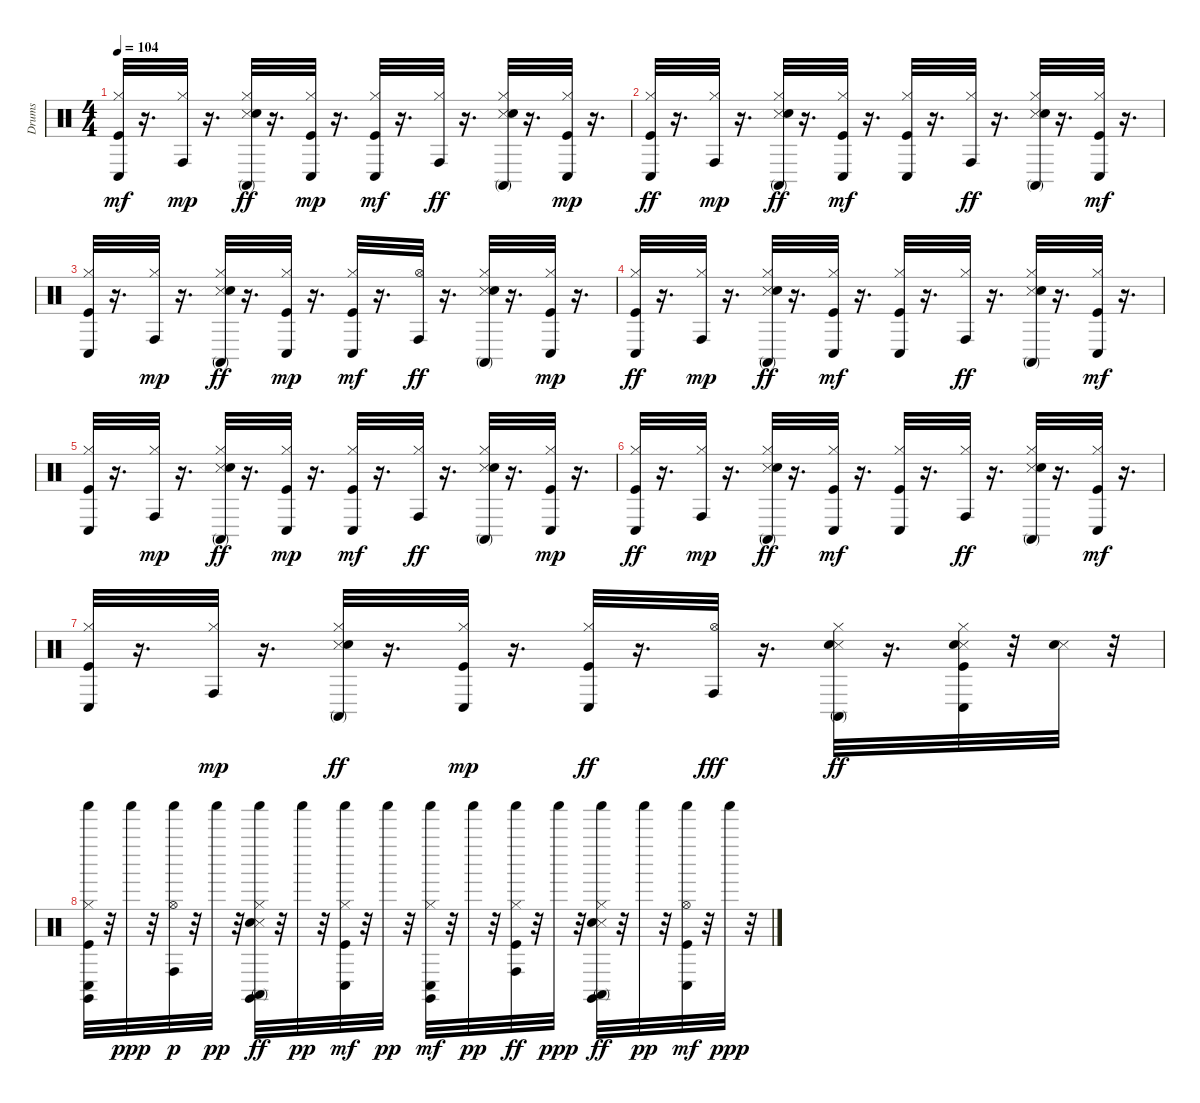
\track ("Drums" "Drums") {instrument percussion}
\staff {score}
\articulation defaults
\ts (4 4)
\tempo 104
\clef neutral
\ks c
("Kick (hit)" "Hi-Hat (closed)" "Conga low (hit)").32{dy mf} r.16{d} ("Hi-Hat (closed)" "Conga high (hit)").32{dy mp} r.16{d} ("Snare (side stick) 3" "Hi-Hat (closed)" "Conga high (mute)" "Snare (hit) 2").32{dy ff} r.16{d} ("Kick (hit)" "Hi-Hat (closed)" "Conga low (hit)").32{dy mp} r.16{d} ("Kick (hit)" "Hi-Hat (closed)" "Conga low (hit)").32{dy mf} r.16{d} ("Hi-Hat (closed)" "Conga high (hit)").32{dy ff} r.16{d} ("Snare (side stick) 3" "Hi-Hat (closed)" "Conga high (mute)" "Snare (hit) 2").32 r.16{d} ("Kick (hit)" "Hi-Hat (closed)" "Conga low (hit)").32{dy mp} r.16{d} |
("Kick (hit)" "Hi-Hat (closed)" "Conga low (hit)").32{dy ff} r.16{d} ("Hi-Hat (closed)" "Conga high (hit)").32{dy mp} r.16{d} ("Snare (side stick) 3" "Hi-Hat (closed)" "Conga high (mute)" "Snare (hit) 2").32{dy ff} r.16{d} ("Kick (hit)" "Hi-Hat (closed)" "Conga low (hit)").32{dy mf} r.16{d} ("Kick (hit)" "Hi-Hat (closed)" "Conga low (hit)").32 r.16{d} ("Hi-Hat (closed)" "Conga high (hit)").32{dy ff} r.16{d} ("Snare (side stick) 3" "Hi-Hat (closed)" "Conga high (mute)" "Snare (hit) 2").32 r.16{d} ("Kick (hit)" "Hi-Hat (closed)" "Conga low (hit)").32{dy mf} r.16{d} |
("Kick (hit)" "Hi-Hat (closed)" "Conga low (hit)").32 r.16{d} ("Hi-Hat (closed)" "Conga high (hit)").32{dy mp} r.16{d} ("Snare (side stick) 3" "Hi-Hat (closed)" "Conga high (mute)" "Snare (hit) 2").32{dy ff} r.16{d} ("Kick (hit)" "Hi-Hat (closed)" "Conga low (hit)").32{dy mp} r.16{d} ("Kick (hit)" "Hi-Hat (closed)" "Conga low (hit)").32{dy mf} r.16{d} ("Hi-Hat (open)" "Conga high (hit)").32{dy ff} r.16{d} ("Snare (side stick) 3" "Hi-Hat (closed)" "Conga high (mute)" "Snare (hit) 2").32 r.16{d} ("Kick (hit)" "Hi-Hat (closed)" "Conga low (hit)").32{dy mp} r.16{d} |
("Kick (hit)" "Hi-Hat (closed)" "Conga low (hit)").32{dy ff} r.16{d} ("Hi-Hat (closed)" "Conga high (hit)").32{dy mp} r.16{d} ("Snare (side stick) 3" "Hi-Hat (closed)" "Conga high (mute)" "Snare (hit) 2").32{dy ff} r.16{d} ("Kick (hit)" "Hi-Hat (closed)" "Conga low (hit)").32{dy mf} r.16{d} ("Kick (hit)" "Hi-Hat (closed)" "Conga low (hit)").32 r.16{d} ("Hi-Hat (closed)" "Conga high (hit)").32{dy ff} r.16{d} ("Snare (side stick) 3" "Hi-Hat (closed)" "Conga high (mute)" "Snare (hit) 2").32 r.16{d} ("Kick (hit)" "Hi-Hat (closed)" "Conga low (hit)").32{dy mf} r.16{d} |
("Kick (hit)" "Hi-Hat (closed)" "Conga low (hit)").32 r.16{d} ("Hi-Hat (closed)" "Conga high (hit)").32{dy mp} r.16{d} ("Snare (side stick) 3" "Hi-Hat (closed)" "Conga high (mute)" "Snare (hit) 2").32{dy ff} r.16{d} ("Kick (hit)" "Hi-Hat (closed)" "Conga low (hit)").32{dy mp} r.16{d} ("Kick (hit)" "Hi-Hat (closed)" "Conga low (hit)").32{dy mf} r.16{d} ("Hi-Hat (closed)" "Conga high (hit)").32{dy ff} r.16{d} ("Snare (side stick) 3" "Hi-Hat (closed)" "Conga high (mute)" "Snare (hit) 2").32 r.16{d} ("Kick (hit)" "Hi-Hat (closed)" "Conga low (hit)").32{dy mp} r.16{d} |
("Kick (hit)" "Hi-Hat (closed)" "Conga low (hit)").32{dy ff} r.16{d} ("Hi-Hat (closed)" "Conga high (hit)").32{dy mp} r.16{d} ("Snare (side stick) 3" "Hi-Hat (closed)" "Conga high (mute)" "Snare (hit) 2").32{dy ff} r.16{d} ("Kick (hit)" "Hi-Hat (closed)" "Conga low (hit)").32{dy mf} r.16{d} ("Kick (hit)" "Hi-Hat (closed)" "Conga low (hit)").32 r.16{d} ("Hi-Hat (closed)" "Conga high (hit)").32{dy ff} r.16{d} ("Snare (side stick) 3" "Hi-Hat (closed)" "Conga high (mute)" "Snare (hit) 2").32 r.16{d} ("Kick (hit)" "Hi-Hat (closed)" "Conga low (hit)").32{dy mf} r.16{d} |
("Kick (hit)" "Hi-Hat (closed)" "Conga low (hit)").32 r.16{d} ("Hi-Hat (closed)" "Conga high (hit)").32{dy mp} r.16{d} ("Snare (side stick) 3" "Hi-Hat (closed)" "Conga high (mute)" "Snare (hit) 2").32{dy ff} r.16{d} ("Kick (hit)" "Hi-Hat (closed)" "Conga low (hit)").32{dy mp} r.16{d} ("Kick (hit)" "Hi-Hat (closed)" "Conga low (hit)").32{dy ff} r.16{d} ("Hi-Hat (open)" "Conga high (hit)").32{dy fff} r.16{d} ("Snare (side stick) 3" "Hi-Hat (closed)" "Conga high (mute)" "Snare (hit) 2").32{dy ff} r.16{d} ("Snare (side stick) 3" "Kick (hit)" "Hi-Hat (closed)" "Conga low (hit)" "Snare (hit) 2").32 r.32 ("Snare (side stick) 3" "Snare (hit) 2").32 r.32 |
("Claves (hit)" "Shaker (hit)" "Kick (hit)" "Hi-Hat (closed)" "Conga low (hit)").32 r.32 "Shaker (hit)".32{dy ppp} r.32 ("Hi-Hat (open)" "Shaker (hit)" "Conga high (hit)").32{dy p} r.32 "Shaker (hit)".32{dy pp} r.32 ("Claves (hit)" "Shaker (hit)" "Snare (side stick) 3" "Hi-Hat (closed)" "Conga high (mute)" "Snare (hit) 2").32{dy ff} r.32 "Shaker (hit)".32{dy pp} r.32 ("Shaker (hit)" "Kick (hit)" "Hi-Hat (closed)" "Conga low (hit)").32{dy mf} r.32 "Shaker (hit)".32{dy pp} r.32 ("Claves (hit)" "Shaker (hit)" "Hi-Hat (closed)" "Conga low (hit)").32{dy mf} r.32 "Shaker (hit)".32{dy pp} r.32 ("Shaker (hit)" "Kick (hit)" "Hi-Hat (closed)" "Conga high (hit)").32{dy ff} r.32 "Shaker (hit)".32{dy ppp} r.32 ("Claves (hit)" "Shaker (hit)" "Snare (side stick) 3" "Hi-Hat (closed)" "Conga high (mute)" "Snare (hit) 2").32{dy ff} r.32 "Shaker (hit)".32{dy pp} r.32 ("Hi-Hat (open)" "Shaker (hit)" "Kick (hit)" "Conga low (hit)").32{dy mf} r.32 "Shaker (hit)".32{dy ppp} r.32
